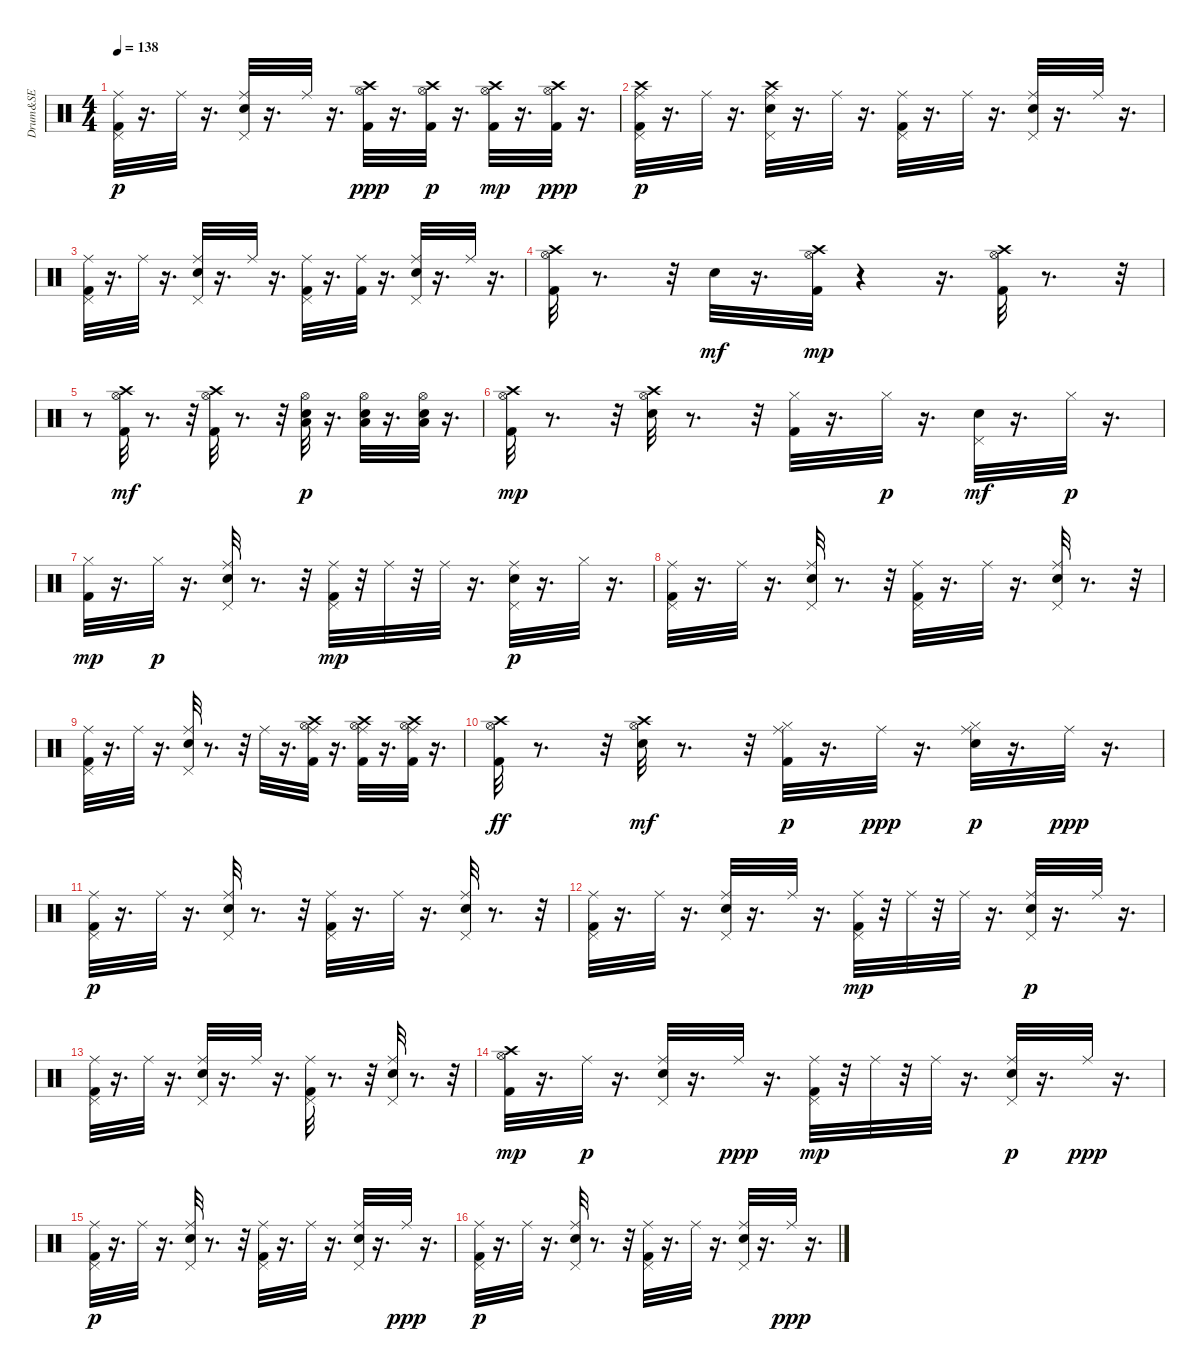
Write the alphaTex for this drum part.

\track ("Drum&SE" "Drum&SE") {instrument percussion}
\staff {score}
\articulation defaults
\ts (4 4)
\tempo 138
\clef neutral
\ks c
("Kick (hit) 2" "Pedal Hi-Hat (hit)" "Ride (middle)").32{dy p} r.16{d} "Ride (middle)".32 r.16{d} ("Snare (hit) 2" "Pedal Hi-Hat (hit)" "Ride (middle)").32 r.16{d} "Ride (middle)".32 r.16{d} ("Kick (hit) 2" "Hi-Hat (open)" "Crash high (hit)").32{dy ppp} r.16{d} ("Kick (hit) 2" "Crash high (hit)" "Hi-Hat (open)").32{dy p} r.16{d} ("Kick (hit) 2" "Crash high (hit)" "Hi-Hat (open)").32{dy mp} r.16{d} ("Kick (hit) 2" "Hi-Hat (open)" "Crash high (hit)").32{dy ppp} r.16{d} |
("Kick (hit) 2" "Pedal Hi-Hat (hit)" "Crash high (hit)" "Ride (middle)").32{dy p} r.16{d} "Ride (middle)".32 r.16{d} ("Snare (hit) 2" "Pedal Hi-Hat (hit)" "Crash high (hit)" "Ride (middle)").32 r.16{d} "Ride (middle)".32 r.16{d} ("Kick (hit) 2" "Pedal Hi-Hat (hit)" "Ride (middle)").32 r.16{d} "Ride (middle)".32 r.16{d} ("Snare (hit) 2" "Pedal Hi-Hat (hit)" "Ride (middle)").32 r.16{d} "Ride (middle)".32 r.16{d} |
("Kick (hit) 2" "Pedal Hi-Hat (hit)" "Ride (middle)").32 r.16{d} "Ride (middle)".32 r.16{d} ("Snare (hit) 2" "Pedal Hi-Hat (hit)" "Ride (middle)").32 r.16{d} "Ride (middle)".32 r.16{d} ("Kick (hit) 2" "Pedal Hi-Hat (hit)" "Ride (middle)").32 r.16{d} ("Kick (hit) 2" "Ride (middle)").32 r.16{d} ("Snare (hit) 2" "Pedal Hi-Hat (hit)" "Ride (middle)").32 r.16{d} "Ride (middle)".32 r.16{d} |
("Kick (hit) 2" "Hi-Hat (open)" "Crash high (hit)").32 r.8{d} r.32 "Snare (hit) 2".32{dy mf} r.16{d} ("Kick (hit) 2" "Hi-Hat (open)" "Crash high (hit)").32{dy mp} r.4 r.16{d} ("Kick (hit) 2" "Hi-Hat (open)" "Crash high (hit)").32 r.8{d} r.32 |
r.8 ("Kick (hit) 2" "Hi-Hat (open)" "Crash high (hit)").32{dy mf} r.8{d} r.32 ("Kick (hit) 2" "Hi-Hat (open)" "Crash high (hit)").32 r.8{d} r.32 ("Snare (hit) 2" "Low Floor Tom (hit)" "Hi-Hat (open)").32{dy p} r.16{d} ("Snare (hit) 2" "Low Tom (hit)" "Hi-Hat (open)").32 r.16{d} ("Snare (hit) 2" "Low Floor Tom (hit)" "Hi-Hat (open)").32 r.16{d} |
("Kick (hit) 2" "Hi-Hat (open)" "Crash high (hit)").32{dy mp} r.8{d} r.32 ("Hi-Hat (open)" "Snare (hit) 2" "Crash high (hit)").32 r.8{d} r.32 ("Kick (hit) 2" "Hi-Hat (closed)").32 r.16{d} "Hi-Hat (closed)".32{dy p} r.16{d} ("Snare (hit) 2" "Pedal Hi-Hat (hit)").32{dy mf} r.16{d} "Hi-Hat (closed)".32{dy p} r.16{d} |
("Kick (hit) 2" "Hi-Hat (closed)").32{dy mp} r.16{d} "Hi-Hat (closed)".32{dy p} r.16{d} ("Snare (hit) 2" "Pedal Hi-Hat (hit)" "Ride (middle)").32 r.8{d} r.32 ("Kick (hit) 2" "Pedal Hi-Hat (hit)" "Ride (middle)").32{dy mp} r.32 "Ride (middle)".32 r.32 "Ride (middle)".32 r.16{d} ("Snare (hit) 2" "Pedal Hi-Hat (hit)" "Ride (middle)").32{dy p} r.16{d} "Hi-Hat (closed)".32 r.16{d} |
("Kick (hit) 2" "Pedal Hi-Hat (hit)" "Ride (middle)").32 r.16{d} "Ride (middle)".32 r.16{d} ("Snare (hit) 2" "Pedal Hi-Hat (hit)" "Ride (middle)").32 r.8{d} r.32 ("Kick (hit) 2" "Pedal Hi-Hat (hit)" "Ride (middle)").32 r.16{d} "Ride (middle)".32 r.16{d} ("Snare (hit) 2" "Pedal Hi-Hat (hit)" "Ride (middle)").32 r.8{d} r.32 |
("Kick (hit) 2" "Pedal Hi-Hat (hit)" "Ride (middle)").32 r.16{d} "Ride (middle)".32 r.16{d} ("Snare (hit) 2" "Pedal Hi-Hat (hit)" "Ride (middle)").32 r.8{d} r.32 "Ride (middle)".32 r.16{d} ("Kick (hit) 2" "Crash high (hit)" "Hi-Hat (open)" "Ride (middle)").32 r.16{d} ("Kick (hit) 2" "Crash high (hit)" "Hi-Hat (open)" "Ride (middle)").32 r.16{d} ("Kick (hit) 2" "Crash high (hit)" "Hi-Hat (open)" "Ride (middle)").32 r.16{d} |
("Kick (hit) 2" "Hi-Hat (open)" "Crash high (hit)").32{dy ff} r.8{d} r.32 ("Snare (hit) 2" "Hi-Hat (open)" "Crash high (hit)").32{dy mf} r.8{d} r.32 ("Kick (hit) 2" "Hi-Hat (closed)" "Ride (middle)").32{dy p} r.16{d} "Ride (middle)".32{dy ppp} r.16{d} ("Snare (hit) 2" "Hi-Hat (closed)" "Ride (middle)").32{dy p} r.16{d} "Ride (middle)".32{dy ppp} r.16{d} |
("Kick (hit) 2" "Pedal Hi-Hat (hit)" "Ride (middle)").32{dy p} r.16{d} "Ride (middle)".32 r.16{d} ("Snare (hit) 2" "Pedal Hi-Hat (hit)" "Ride (middle)").32 r.8{d} r.32 ("Kick (hit) 2" "Pedal Hi-Hat (hit)" "Ride (middle)").32 r.16{d} "Ride (middle)".32 r.16{d} ("Snare (hit) 2" "Pedal Hi-Hat (hit)" "Ride (middle)").32 r.8{d} r.32 |
("Kick (hit) 2" "Pedal Hi-Hat (hit)" "Ride (middle)").32 r.16{d} "Ride (middle)".32 r.16{d} ("Snare (hit) 2" "Pedal Hi-Hat (hit)" "Ride (middle)").32 r.16{d} "Ride (middle)".32 r.16{d} ("Kick (hit) 2" "Pedal Hi-Hat (hit)" "Ride (middle)").32{dy mp} r.32 "Ride (middle)".32 r.32 "Ride (middle)".32 r.16{d} ("Snare (hit) 2" "Pedal Hi-Hat (hit)" "Ride (middle)").32{dy p} r.16{d} "Ride (middle)".32 r.16{d} |
("Kick (hit) 2" "Pedal Hi-Hat (hit)" "Ride (middle)").32 r.16{d} "Ride (middle)".32 r.16{d} ("Snare (hit) 2" "Pedal Hi-Hat (hit)" "Ride (middle)").32 r.16{d} "Ride (middle)".32 r.16{d} ("Kick (hit) 2" "Pedal Hi-Hat (hit)" "Ride (middle)").32 r.8{d} r.32 ("Snare (hit) 2" "Pedal Hi-Hat (hit)" "Ride (middle)").32 r.8{d} r.32 |
("Kick (hit) 2" "Hi-Hat (open)" "Crash high (hit)").32{dy mp} r.16{d} "Ride (middle)".32{dy p} r.16{d} ("Snare (hit) 2" "Pedal Hi-Hat (hit)" "Ride (middle)").32 r.16{d} "Ride (middle)".32{dy ppp} r.16{d} ("Kick (hit) 2" "Pedal Hi-Hat (hit)" "Ride (middle)").32{dy mp} r.32 "Ride (middle)".32 r.32 "Ride (middle)".32 r.16{d} ("Snare (hit) 2" "Pedal Hi-Hat (hit)" "Ride (middle)").32{dy p} r.16{d} "Ride (middle)".32{dy ppp} r.16{d} |
("Kick (hit) 2" "Pedal Hi-Hat (hit)" "Ride (middle)").32{dy p} r.16{d} "Ride (middle)".32 r.16{d} ("Snare (hit) 2" "Pedal Hi-Hat (hit)" "Ride (middle)").32 r.8{d} r.32 ("Kick (hit) 2" "Pedal Hi-Hat (hit)" "Ride (middle)").32 r.16{d} "Ride (middle)".32 r.16{d} ("Snare (hit) 2" "Pedal Hi-Hat (hit)" "Ride (middle)").32 r.16{d} "Ride (middle)".32{dy ppp} r.16{d} |
("Kick (hit) 2" "Pedal Hi-Hat (hit)" "Ride (middle)").32{dy p} r.16{d} "Ride (middle)".32 r.16{d} ("Snare (hit) 2" "Pedal Hi-Hat (hit)" "Ride (middle)").32 r.8{d} r.32 ("Kick (hit) 2" "Pedal Hi-Hat (hit)" "Ride (middle)").32 r.16{d} "Ride (middle)".32 r.16{d} ("Snare (hit) 2" "Pedal Hi-Hat (hit)" "Ride (middle)").32 r.16{d} "Ride (middle)".32{dy ppp} r.16{d}
